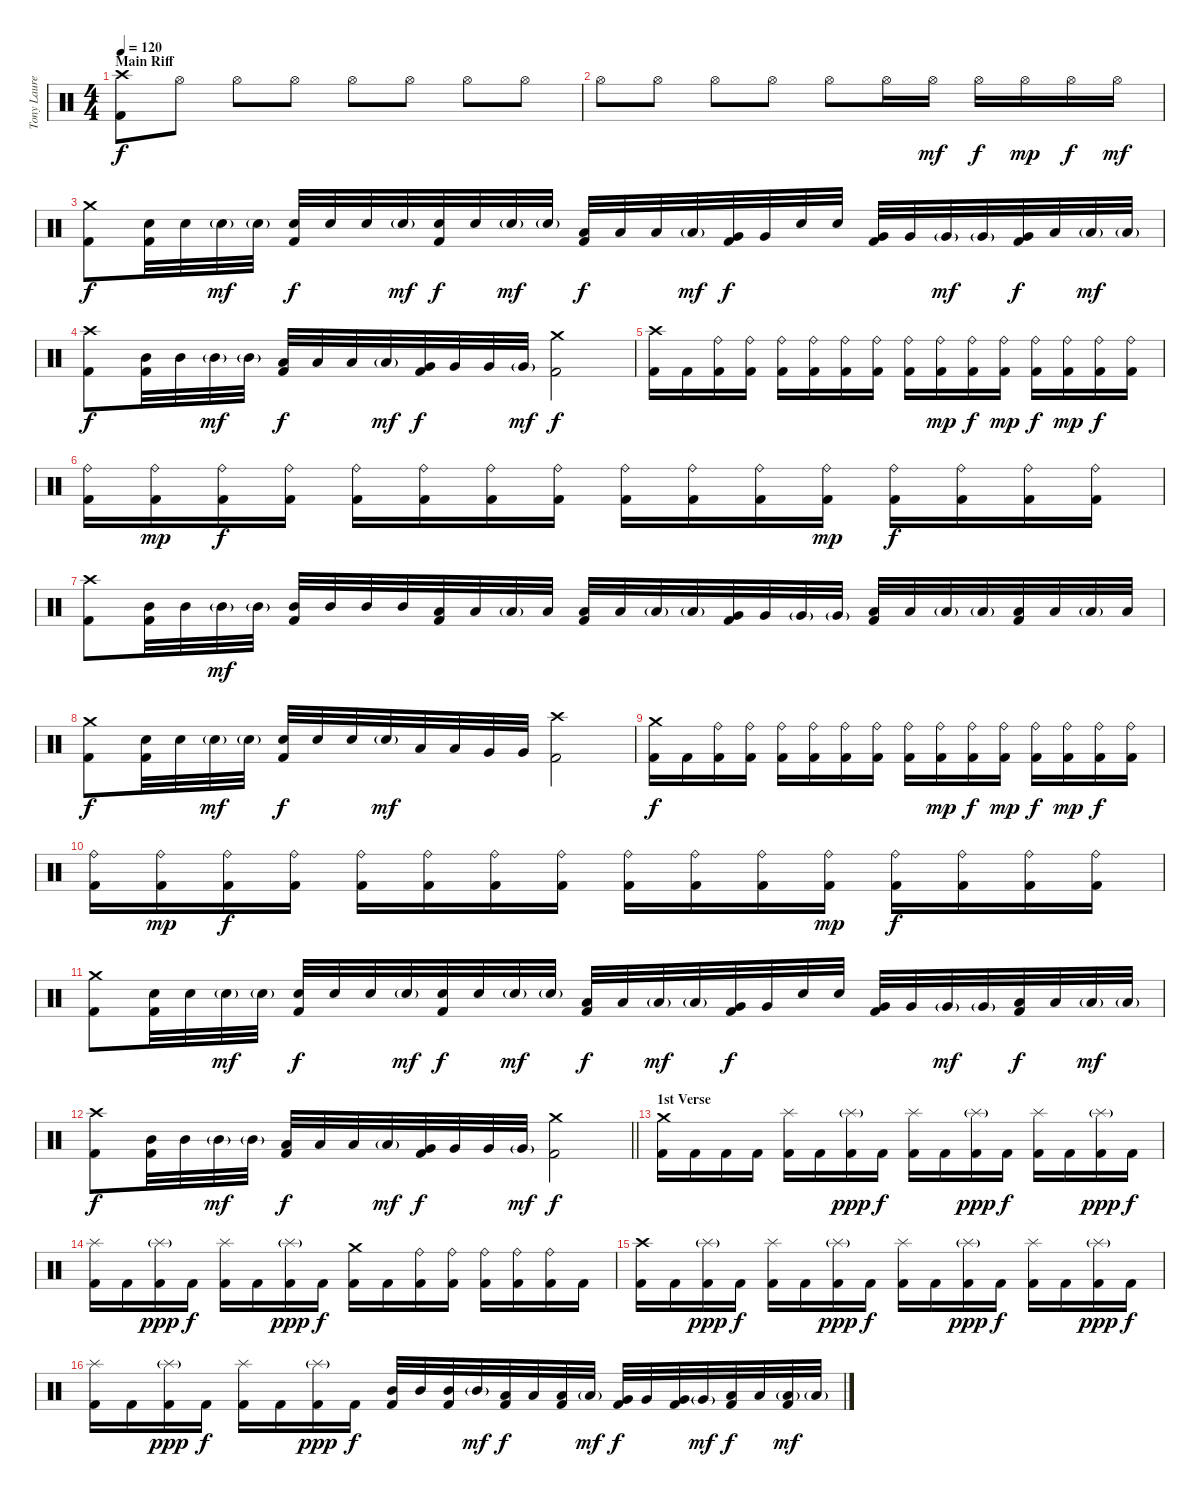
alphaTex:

\track ("Tony Laureano" "Tony Laure") {instrument percussion}
\staff {score}
\articulation defaults
\ts (4 4)
\section ("" "Main Riff")
\tempo 120
\clef neutral
\ks c
("Crash high (hit)" "Kick (hit) 2").8{dy f} "Hi-Hat (open)".8 "Hi-Hat (open)".8 "Hi-Hat (open)".8 "Hi-Hat (open)".8 "Hi-Hat (open)".8 "Hi-Hat (open)".8 "Hi-Hat (open)".8 |
"Hi-Hat (open)".8 "Hi-Hat (open)".8 "Hi-Hat (open)".8 "Hi-Hat (open)".8 "Hi-Hat (open)".8 "Hi-Hat (open)".16 "Hi-Hat (open)".16{dy mf} "Hi-Hat (open)".16{dy f} "Hi-Hat (open)".16{dy mp} "Hi-Hat (open)".16{dy f} "Hi-Hat (open)".16{dy mf} |
("Crash medium (hit)" "Kick (hit) 2").8{dy f} ("Electric Snare (hit)" "Kick (hit) 2").32 "Electric Snare (hit)".32 "Electric Snare (hit)"{g}.32{dy mf} "Electric Snare (hit)"{g}.32 ("Electric Snare (hit)" "Kick (hit) 2").32{dy f} "Electric Snare (hit)".32 "Electric Snare (hit)".32 "Electric Snare (hit)"{g}.32{dy mf} ("Electric Snare (hit)" "Kick (hit) 2").32{dy f} "Electric Snare (hit)".32 "Electric Snare (hit)"{g}.32{dy mf} "Electric Snare (hit)"{g}.32 ("Low Tom (hit)" "Kick (hit) 2").32{dy f} "Low Tom (hit)".32 "Low Tom (hit)".32 "Low Tom (hit)"{g}.32{dy mf} ("Very Low Tom (hit)" "Kick (hit) 2").32{dy f} "Very Low Tom (hit)".32 "Electric Snare (hit)".32 "Electric Snare (hit)".32 ("Very Low Tom (hit)" "Kick (hit) 2").32 "Very Low Tom (hit)".32 "Very Low Tom (hit)"{g}.32{dy mf} "Very Low Tom (hit)"{g}.32 ("Very Low Tom (hit)" "Kick (hit) 2").32{dy f} "Low Floor Tom (hit)".32 "Low Floor Tom (hit)"{g}.32{dy mf} "Low Floor Tom (hit)"{g}.32 |
("Crash high (hit)" "Kick (hit) 2").8{dy f} ("Mid Tom (hit)" "Kick (hit) 2").32 "Mid Tom (hit)".32 "Mid Tom (hit)"{g}.32{dy mf} "Mid Tom (hit)"{g}.32 ("Low Tom (hit)" "Kick (hit) 2").32{dy f} "Low Tom (hit)".32 "Low Tom (hit)".32 "Low Tom (hit)"{g}.32{dy mf} ("Very Low Tom (hit)" "Kick (hit) 2").32{dy f} "Very Low Tom (hit)".32 "Very Low Tom (hit)".32 "Very Low Tom (hit)"{g}.32{dy mf} ("Crash medium (hit)" "Kick (hit) 2").2{dy f} |
("Crash high (hit)" "Kick (hit) 2").16 "Kick (hit) 2".16 ("Ride (bell)" "Kick (hit) 2").16 ("Ride (bell)" "Kick (hit) 2").16 ("Ride (bell)" "Kick (hit) 2").16 ("Ride (bell)" "Kick (hit) 2").16 ("Ride (bell)" "Kick (hit) 2").16 ("Ride (bell)" "Kick (hit) 2").16 ("Ride (bell)" "Kick (hit) 2").16 ("Ride (bell)" "Kick (hit) 2").16{dy mp} ("Ride (bell)" "Kick (hit) 2").16{dy f} ("Ride (bell)" "Kick (hit) 2").16{dy mp} ("Ride (bell)" "Kick (hit) 2").16{dy f} ("Ride (bell)" "Kick (hit) 2").16{dy mp} ("Ride (bell)" "Kick (hit) 2").16{dy f} ("Ride (bell)" "Kick (hit) 2").16 |
("Ride (bell)" "Kick (hit) 2").16 ("Ride (bell)" "Kick (hit) 2").16{dy mp} ("Ride (bell)" "Kick (hit) 2").16{dy f} ("Ride (bell)" "Kick (hit) 2").16 ("Ride (bell)" "Kick (hit) 2").16 ("Ride (bell)" "Kick (hit) 2").16 ("Ride (bell)" "Kick (hit) 2").16 ("Ride (bell)" "Kick (hit) 2").16 ("Ride (bell)" "Kick (hit) 2").16 ("Ride (bell)" "Kick (hit) 2").16 ("Ride (bell)" "Kick (hit) 2").16 ("Ride (bell)" "Kick (hit) 2").16{dy mp} ("Ride (bell)" "Kick (hit) 2").16{dy f} ("Ride (bell)" "Kick (hit) 2").16 ("Ride (bell)" "Kick (hit) 2").16 ("Ride (bell)" "Kick (hit) 2").16 |
("Crash high (hit)" "Kick (hit) 2").8 ("Mid Tom (hit)" "Kick (hit) 2").32 "Mid Tom (hit)".32 "Mid Tom (hit)"{g}.32{dy mf} "Mid Tom (hit)"{g}.32 ("Mid Tom (hit)" "Kick (hit) 2").32 "Mid Tom (hit)".32 "Mid Tom (hit)".32 "Mid Tom (hit)".32 ("Low Tom (hit)" "Kick (hit) 2").32 "Low Tom (hit)".32 "Low Tom (hit)"{g}.32 "Low Tom (hit)".32 ("Low Tom (hit)" "Kick (hit) 2").32 "Low Tom (hit)".32 "Low Tom (hit)"{g}.32 "Low Tom (hit)"{g}.32 ("Very Low Tom (hit)" "Kick (hit) 2").32 "Very Low Tom (hit)".32 "Very Low Tom (hit)"{g}.32 "Very Low Tom (hit)"{g}.32 ("Low Floor Tom (hit)" "Kick (hit) 2").32 "Low Floor Tom (hit)".32 "Low Floor Tom (hit)"{g}.32 "Low Floor Tom (hit)"{g}.32 ("Low Floor Tom (hit)" "Kick (hit) 2").32 "Low Floor Tom (hit)".32 "Low Floor Tom (hit)"{g}.32 "Low Floor Tom (hit)".32 |
("Crash medium (hit)" "Kick (hit) 2").8{dy f} ("Electric Snare (hit)" "Kick (hit) 2").32 "Electric Snare (hit)".32 "Electric Snare (hit)"{g}.32{dy mf} "Electric Snare (hit)"{g}.32 ("Electric Snare (hit)" "Kick (hit) 2").32{dy f} "Electric Snare (hit)".32 "Electric Snare (hit)".32 "Electric Snare (hit)"{g}.32{dy mf} "Low Tom (hit)".32 "Low Tom (hit)".32 "Very Low Tom (hit)".32 "Very Low Tom (hit)".32 ("Crash high (hit)" "Kick (hit) 2").2 |
("Crash medium (hit)" "Kick (hit) 2").16{dy f} "Kick (hit) 2".16 ("Ride (bell)" "Kick (hit) 2").16 ("Ride (bell)" "Kick (hit) 2").16 ("Ride (bell)" "Kick (hit) 2").16 ("Ride (bell)" "Kick (hit) 2").16 ("Ride (bell)" "Kick (hit) 2").16 ("Ride (bell)" "Kick (hit) 2").16 ("Ride (bell)" "Kick (hit) 2").16 ("Ride (bell)" "Kick (hit) 2").16{dy mp} ("Ride (bell)" "Kick (hit) 2").16{dy f} ("Ride (bell)" "Kick (hit) 2").16{dy mp} ("Ride (bell)" "Kick (hit) 2").16{dy f} ("Ride (bell)" "Kick (hit) 2").16{dy mp} ("Ride (bell)" "Kick (hit) 2").16{dy f} ("Ride (bell)" "Kick (hit) 2").16 |
("Ride (bell)" "Kick (hit) 2").16 ("Ride (bell)" "Kick (hit) 2").16{dy mp} ("Ride (bell)" "Kick (hit) 2").16{dy f} ("Ride (bell)" "Kick (hit) 2").16 ("Ride (bell)" "Kick (hit) 2").16 ("Ride (bell)" "Kick (hit) 2").16 ("Ride (bell)" "Kick (hit) 2").16 ("Ride (bell)" "Kick (hit) 2").16 ("Ride (bell)" "Kick (hit) 2").16 ("Ride (bell)" "Kick (hit) 2").16 ("Ride (bell)" "Kick (hit) 2").16 ("Ride (bell)" "Kick (hit) 2").16{dy mp} ("Ride (bell)" "Kick (hit) 2").16{dy f} ("Ride (bell)" "Kick (hit) 2").16 ("Ride (bell)" "Kick (hit) 2").16 ("Ride (bell)" "Kick (hit) 2").16 |
("Crash medium (hit)" "Kick (hit) 2").8 ("Electric Snare (hit)" "Kick (hit) 2").32 "Electric Snare (hit)".32 "Electric Snare (hit)"{g}.32{dy mf} "Electric Snare (hit)"{g}.32 ("Electric Snare (hit)" "Kick (hit) 2").32{dy f} "Electric Snare (hit)".32 "Electric Snare (hit)".32 "Electric Snare (hit)"{g}.32{dy mf} ("Electric Snare (hit)" "Kick (hit) 2").32{dy f} "Electric Snare (hit)".32 "Electric Snare (hit)"{g}.32{dy mf} "Electric Snare (hit)"{g}.32 ("Low Tom (hit)" "Kick (hit) 2").32{dy f} "Low Tom (hit)".32 "Low Tom (hit)"{g}.32{dy mf} "Low Tom (hit)"{g}.32 ("Very Low Tom (hit)" "Kick (hit) 2").32{dy f} "Very Low Tom (hit)".32 "Electric Snare (hit)".32 "Electric Snare (hit)".32 ("Very Low Tom (hit)" "Kick (hit) 2").32 "Very Low Tom (hit)".32 "Very Low Tom (hit)"{g}.32{dy mf} "Very Low Tom (hit)"{g}.32 ("Low Floor Tom (hit)" "Kick (hit) 2").32{dy f} "Low Floor Tom (hit)".32 "Low Floor Tom (hit)"{g}.32{dy mf} "Low Floor Tom (hit)"{g}.32 |
\barLineRight lightlight
("Crash high (hit)" "Kick (hit) 2").8{dy f} ("Mid Tom (hit)" "Kick (hit) 2").32 "Mid Tom (hit)".32 "Mid Tom (hit)"{g}.32{dy mf} "Mid Tom (hit)"{g}.32 ("Low Tom (hit)" "Kick (hit) 2").32{dy f} "Low Tom (hit)".32 "Low Tom (hit)".32 "Low Tom (hit)"{g}.32{dy mf} ("Very Low Tom (hit)" "Kick (hit) 2").32{dy f} "Very Low Tom (hit)".32 "Very Low Tom (hit)".32 "Very Low Tom (hit)"{g}.32{dy mf} ("Crash medium (hit)" "Kick (hit) 2").2{dy f} |
\section ("" "1st Verse")
("Crash medium (hit)" "Kick (hit) 2").16 "Kick (hit) 2".16 "Kick (hit) 2".16 "Kick (hit) 2".16 ("Splash (hit)" "Kick (hit) 2").16 "Kick (hit) 2".16 ("Splash (hit)"{g} "Kick (hit) 2").16{dy ppp} "Kick (hit) 2".16{dy f} ("Splash (hit)" "Kick (hit) 2").16 "Kick (hit) 2".16 ("Splash (hit)"{g} "Kick (hit) 2").16{dy ppp} "Kick (hit) 2".16{dy f} ("Splash (hit)" "Kick (hit) 2").16 "Kick (hit) 2".16 ("Splash (hit)"{g} "Kick (hit) 2").16{dy ppp} "Kick (hit) 2".16{dy f} |
("Splash (hit)" "Kick (hit) 2").16 "Kick (hit) 2".16 ("Splash (hit)"{g} "Kick (hit) 2").16{dy ppp} "Kick (hit) 2".16{dy f} ("Splash (hit)" "Kick (hit) 2").16 "Kick (hit) 2".16 ("Splash (hit)"{g} "Kick (hit) 2").16{dy ppp} "Kick (hit) 2".16{dy f} ("Crash medium (hit)" "Kick (hit) 2").16 "Kick (hit) 2".16 ("Ride (bell)" "Kick (hit) 2").16 ("Ride (bell)" "Kick (hit) 2").16 ("Ride (bell)" "Kick (hit) 2").16 ("Ride (bell)" "Kick (hit) 2").16 ("Ride (bell)" "Kick (hit) 2").16 "Kick (hit) 2".16 |
("Crash high (hit)" "Kick (hit) 2").16 "Kick (hit) 2".16 ("Splash (hit)"{g} "Kick (hit) 2").16{dy ppp} "Kick (hit) 2".16{dy f} ("Splash (hit)" "Kick (hit) 2").16 "Kick (hit) 2".16 ("Splash (hit)"{g} "Kick (hit) 2").16{dy ppp} "Kick (hit) 2".16{dy f} ("Splash (hit)" "Kick (hit) 2").16 "Kick (hit) 2".16 ("Splash (hit)"{g} "Kick (hit) 2").16{dy ppp} "Kick (hit) 2".16{dy f} ("Splash (hit)" "Kick (hit) 2").16 "Kick (hit) 2".16 ("Splash (hit)"{g} "Kick (hit) 2").16{dy ppp} "Kick (hit) 2".16{dy f} |
("Splash (hit)" "Kick (hit) 2").16 "Kick (hit) 2".16 ("Splash (hit)"{g} "Kick (hit) 2").16{dy ppp} "Kick (hit) 2".16{dy f} ("Splash (hit)" "Kick (hit) 2").16 "Kick (hit) 2".16 ("Splash (hit)"{g} "Kick (hit) 2").16{dy ppp} "Kick (hit) 2".16{dy f} ("Mid Tom (hit)" "Kick (hit) 2").32 "Mid Tom (hit)".32 ("Mid Tom (hit)" "Kick (hit) 2").32 "Mid Tom (hit)"{g}.32{dy mf} ("Low Tom (hit)" "Kick (hit) 2").32{dy f} "Low Tom (hit)".32 ("Low Tom (hit)" "Kick (hit) 2").32 "Low Tom (hit)"{g}.32{dy mf} ("Very Low Tom (hit)" "Kick (hit) 2").32{dy f} "Very Low Tom (hit)".32 ("Very Low Tom (hit)" "Kick (hit) 2").32 "Very Low Tom (hit)"{g}.32{dy mf} ("Low Floor Tom (hit)" "Kick (hit) 2").32{dy f} "Low Floor Tom (hit)".32 ("Low Floor Tom (hit)"{g} "Kick (hit) 2").32{dy mf} "Low Floor Tom (hit)"{g}.32
